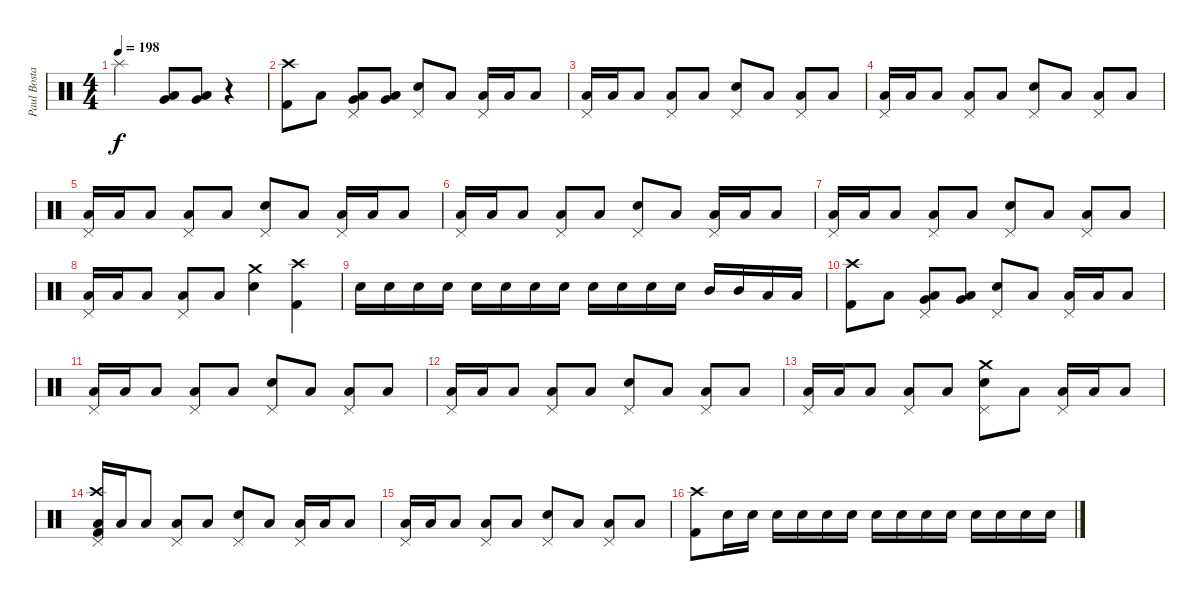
\track ("Paul Bostaph" "Paul Bosta") {instrument percussion}
\staff {score}
\articulation defaults
\ts (4 4)
\tempo 198
\clef neutral
\ks c "Splash (hit)".2{dy f}
("Very Low Tom (hit)" "Low Tom (hit)").8 ("Very Low Tom (hit)" "Low Tom (hit)").8 r.4 |
("Crash high (hit)" "Kick (hit) 2").8 "Low Tom (hit)".8 ("Pedal Hi-Hat (hit)" "Very Low Tom (hit)" "Low Tom (hit)").8 ("Very Low Tom (hit)" "Low Tom (hit)").8 ("Pedal Hi-Hat (hit)" "Electric Snare (hit)").8 "Low Tom (hit)".8 ("Pedal Hi-Hat (hit)" "Low Tom (hit)").16 "Low Tom (hit)".16 "Low Tom (hit)".8 |
("Pedal Hi-Hat (hit)" "Low Tom (hit)").16 "Low Tom (hit)".16 "Low Tom (hit)".8 ("Pedal Hi-Hat (hit)" "Low Tom (hit)").8 "Low Tom (hit)".8 ("Pedal Hi-Hat (hit)" "Electric Snare (hit)").8 "Low Tom (hit)".8 ("Pedal Hi-Hat (hit)" "Low Tom (hit)").8 "Low Tom (hit)".8 |
("Pedal Hi-Hat (hit)" "Low Tom (hit)").16 "Low Tom (hit)".16 "Low Tom (hit)".8 ("Pedal Hi-Hat (hit)" "Low Tom (hit)").8 "Low Tom (hit)".8 ("Pedal Hi-Hat (hit)" "Electric Snare (hit)").8 "Low Tom (hit)".8 ("Pedal Hi-Hat (hit)" "Low Tom (hit)").8 "Low Tom (hit)".8 |
("Pedal Hi-Hat (hit)" "Low Tom (hit)").16 "Low Tom (hit)".16 "Low Tom (hit)".8 ("Pedal Hi-Hat (hit)" "Low Tom (hit)").8 "Low Tom (hit)".8 ("Pedal Hi-Hat (hit)" "Electric Snare (hit)").8 "Low Tom (hit)".8 ("Pedal Hi-Hat (hit)" "Low Tom (hit)").16 "Low Tom (hit)".16 "Low Tom (hit)".8 |
("Pedal Hi-Hat (hit)" "Low Tom (hit)").16 "Low Tom (hit)".16 "Low Tom (hit)".8 ("Pedal Hi-Hat (hit)" "Low Tom (hit)").8 "Low Tom (hit)".8 ("Pedal Hi-Hat (hit)" "Electric Snare (hit)").8 "Low Tom (hit)".8 ("Pedal Hi-Hat (hit)" "Low Tom (hit)").16 "Low Tom (hit)".16 "Low Tom (hit)".8 |
("Pedal Hi-Hat (hit)" "Low Tom (hit)").16 "Low Tom (hit)".16 "Low Tom (hit)".8 ("Pedal Hi-Hat (hit)" "Low Tom (hit)").8 "Low Tom (hit)".8 ("Pedal Hi-Hat (hit)" "Electric Snare (hit)").8 "Low Tom (hit)".8 ("Pedal Hi-Hat (hit)" "Low Tom (hit)").8 "Low Tom (hit)".8 |
("Pedal Hi-Hat (hit)" "Low Tom (hit)").16 "Low Tom (hit)".16 "Low Tom (hit)".8 ("Pedal Hi-Hat (hit)" "Low Tom (hit)").8 "Low Tom (hit)".8 ("Crash medium (hit)" "Electric Snare (hit)").4 ("Crash high (hit)" "Kick (hit) 2").4 |
"Electric Snare (hit)".16 "Electric Snare (hit)".16 "Electric Snare (hit)".16 "Electric Snare (hit)".16 "Electric Snare (hit)".16 "Electric Snare (hit)".16 "Electric Snare (hit)".16 "Electric Snare (hit)".16 "Electric Snare (hit)".16 "Electric Snare (hit)".16 "Electric Snare (hit)".16 "Electric Snare (hit)".16 "Mid Tom (hit)".16 "Mid Tom (hit)".16 "Low Tom (hit)".16 "Low Tom (hit)".16 |
("Crash high (hit)" "Kick (hit) 2").8 "Low Tom (hit)".8 ("Pedal Hi-Hat (hit)" "Very Low Tom (hit)" "Low Tom (hit)").8 ("Very Low Tom (hit)" "Low Tom (hit)").8 ("Pedal Hi-Hat (hit)" "Electric Snare (hit)").8 "Low Tom (hit)".8 ("Pedal Hi-Hat (hit)" "Low Tom (hit)").16 "Low Tom (hit)".16 "Low Tom (hit)".8 |
("Pedal Hi-Hat (hit)" "Low Tom (hit)").16 "Low Tom (hit)".16 "Low Tom (hit)".8 ("Pedal Hi-Hat (hit)" "Low Tom (hit)").8 "Low Tom (hit)".8 ("Pedal Hi-Hat (hit)" "Electric Snare (hit)").8 "Low Tom (hit)".8 ("Pedal Hi-Hat (hit)" "Low Tom (hit)").8 "Low Tom (hit)".8 |
("Pedal Hi-Hat (hit)" "Low Tom (hit)").16 "Low Tom (hit)".16 "Low Tom (hit)".8 ("Pedal Hi-Hat (hit)" "Low Tom (hit)").8 "Low Tom (hit)".8 ("Pedal Hi-Hat (hit)" "Electric Snare (hit)").8 "Low Tom (hit)".8 ("Pedal Hi-Hat (hit)" "Low Tom (hit)").8 "Low Tom (hit)".8 |
("Pedal Hi-Hat (hit)" "Low Tom (hit)").16 "Low Tom (hit)".16 "Low Tom (hit)".8 ("Pedal Hi-Hat (hit)" "Low Tom (hit)").8 "Low Tom (hit)".8 ("Pedal Hi-Hat (hit)" "Crash medium (hit)" "Electric Snare (hit)").8 "Low Tom (hit)".8 ("Pedal Hi-Hat (hit)" "Low Tom (hit)").16 "Low Tom (hit)".16 "Low Tom (hit)".8 |
("Pedal Hi-Hat (hit)" "Crash high (hit)" "Kick (hit) 2" "Low Tom (hit)").16 "Low Tom (hit)".16 "Low Tom (hit)".8 ("Pedal Hi-Hat (hit)" "Low Tom (hit)").8 "Low Tom (hit)".8 ("Pedal Hi-Hat (hit)" "Electric Snare (hit)").8 "Low Tom (hit)".8 ("Pedal Hi-Hat (hit)" "Low Tom (hit)").16 "Low Tom (hit)".16 "Low Tom (hit)".8 |
("Pedal Hi-Hat (hit)" "Low Tom (hit)").16 "Low Tom (hit)".16 "Low Tom (hit)".8 ("Pedal Hi-Hat (hit)" "Low Tom (hit)").8 "Low Tom (hit)".8 ("Pedal Hi-Hat (hit)" "Electric Snare (hit)").8 "Low Tom (hit)".8 ("Pedal Hi-Hat (hit)" "Low Tom (hit)").8 "Low Tom (hit)".8 |
("Crash high (hit)" "Kick (hit) 2").8 "Electric Snare (hit)".16 "Electric Snare (hit)".16 "Electric Snare (hit)".16 "Electric Snare (hit)".16 "Electric Snare (hit)".16 "Electric Snare (hit)".16 "Electric Snare (hit)".16 "Electric Snare (hit)".16 "Electric Snare (hit)".16 "Electric Snare (hit)".16 "Electric Snare (hit)".16 "Electric Snare (hit)".16 "Electric Snare (hit)".16 "Electric Snare (hit)".16
